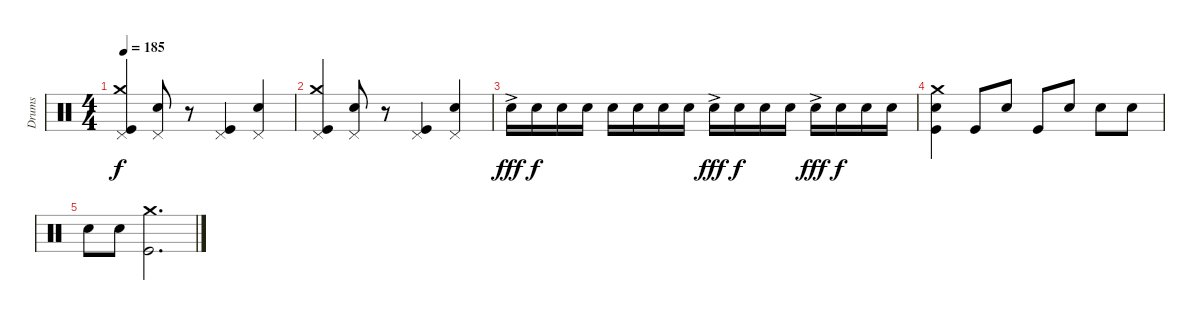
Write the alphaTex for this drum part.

\track ("Drums" "Drums") {instrument percussion}
\staff {score}
\articulation defaults
\ts (4 4)
\tempo 185
\clef neutral
\ks c
("Pedal Hi-Hat (hit)" "Crash medium (hit)" "Kick (hit)").4{dy f} ("Pedal Hi-Hat (hit)" "Snare (hit) 2").8 r.8 ("Pedal Hi-Hat (hit)" "Kick (hit)").4 ("Pedal Hi-Hat (hit)" "Snare (hit) 2").4 |
("Pedal Hi-Hat (hit)" "Crash medium (hit)" "Kick (hit)").4 ("Pedal Hi-Hat (hit)" "Snare (hit) 2").8 r.8 ("Pedal Hi-Hat (hit)" "Kick (hit)").4 ("Pedal Hi-Hat (hit)" "Snare (hit) 2").4 |
"Snare (hit) 2"{ac}.16{dy fff} "Snare (hit) 2".16{dy f} "Snare (hit) 2".16 "Snare (hit) 2".16 "Snare (hit) 2".16 "Snare (hit) 2".16 "Snare (hit) 2".16 "Snare (hit) 2".16 "Snare (hit) 2"{ac}.16{dy fff} "Snare (hit) 2".16{dy f} "Snare (hit) 2".16 "Snare (hit) 2".16 "Snare (hit) 2"{ac}.16{dy fff} "Snare (hit) 2".16{dy f} "Snare (hit) 2".16 "Snare (hit) 2".16 |
("Kick (hit)" "Snare (hit) 2" "Crash medium (hit)").4 "Kick (hit)".8 "Snare (hit) 2".8 "Kick (hit)".8 "Snare (hit) 2".8 "Snare (hit) 2".8 "Snare (hit) 2".8 |
"Snare (hit) 2".8 "Snare (hit) 2".8 ("Crash medium (hit)" "Kick (hit)").2{d}
